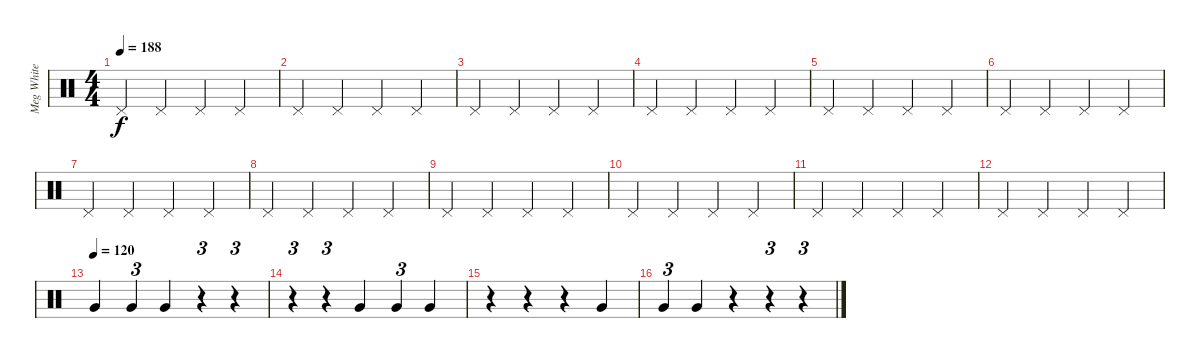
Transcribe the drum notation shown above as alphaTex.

\track ("Meg White" "Meg White") {instrument percussion}
\staff {score}
\articulation defaults
\ts (4 4)
\tempo 188
\clef neutral
\ks c "Pedal Hi-Hat (hit)".4{dy f} "Pedal Hi-Hat (hit)".4 "Pedal Hi-Hat (hit)".4 "Pedal Hi-Hat (hit)".4
|
"Pedal Hi-Hat (hit)".4 "Pedal Hi-Hat (hit)".4 "Pedal Hi-Hat (hit)".4 "Pedal Hi-Hat (hit)".4 |
"Pedal Hi-Hat (hit)".4 "Pedal Hi-Hat (hit)".4 "Pedal Hi-Hat (hit)".4 "Pedal Hi-Hat (hit)".4 |
"Pedal Hi-Hat (hit)".4 "Pedal Hi-Hat (hit)".4 "Pedal Hi-Hat (hit)".4 "Pedal Hi-Hat (hit)".4 |
"Pedal Hi-Hat (hit)".4 "Pedal Hi-Hat (hit)".4 "Pedal Hi-Hat (hit)".4 "Pedal Hi-Hat (hit)".4 |
"Pedal Hi-Hat (hit)".4 "Pedal Hi-Hat (hit)".4 "Pedal Hi-Hat (hit)".4 "Pedal Hi-Hat (hit)".4 |
"Pedal Hi-Hat (hit)".4 "Pedal Hi-Hat (hit)".4 "Pedal Hi-Hat (hit)".4 "Pedal Hi-Hat (hit)".4 |
"Pedal Hi-Hat (hit)".4 "Pedal Hi-Hat (hit)".4 "Pedal Hi-Hat (hit)".4 "Pedal Hi-Hat (hit)".4 |
"Pedal Hi-Hat (hit)".4 "Pedal Hi-Hat (hit)".4 "Pedal Hi-Hat (hit)".4 "Pedal Hi-Hat (hit)".4 |
"Pedal Hi-Hat (hit)".4 "Pedal Hi-Hat (hit)".4 "Pedal Hi-Hat (hit)".4 "Pedal Hi-Hat (hit)".4 |
"Pedal Hi-Hat (hit)".4 "Pedal Hi-Hat (hit)".4 "Pedal Hi-Hat (hit)".4 "Pedal Hi-Hat (hit)".4 |
"Pedal Hi-Hat (hit)".4 "Pedal Hi-Hat (hit)".4 "Pedal Hi-Hat (hit)".4 "Pedal Hi-Hat (hit)".4 |
\tempo (120)
"Very Low Tom (hit)".4 "Very Low Tom (hit)".4{tu (3 2)} "Very Low Tom (hit)".4 r.4{tu (3 2)} r.4{tu (3 2)} |
r.4{tu (3 2)} r.4{tu (3 2)} "Very Low Tom (hit)".4 "Very Low Tom (hit)".4{tu (3 2)} "Very Low Tom (hit)".4 |
r.4 r.4 r.4 "Very Low Tom (hit)".4 |
"Very Low Tom (hit)".4{tu (3 2)} "Very Low Tom (hit)".4 r.4 r.4{tu (3 2)} r.4{tu (3 2)}
